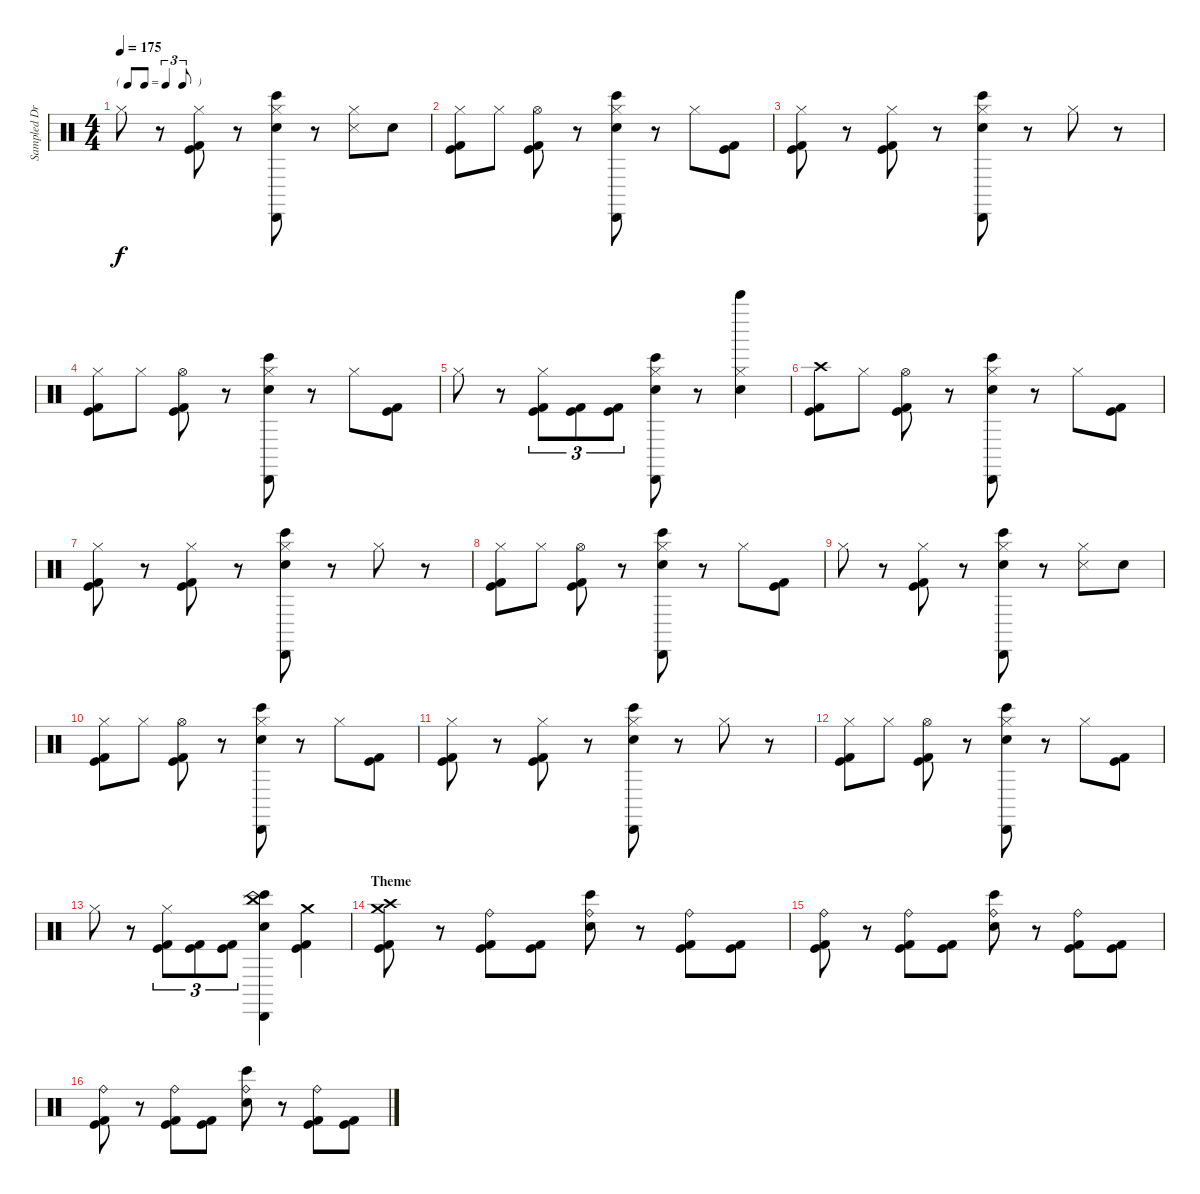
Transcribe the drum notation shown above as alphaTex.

\track ("Sampled Drums" "Sampled Dr") {instrument percussion}
\staff {score}
\articulation defaults
\ts (4 4)
\tf triplet8th
\tempo 175
\clef neutral
\ks c "Hi-Hat (closed)".8{dy f}
r.8 ("Hi-Hat (closed)" "Kick (hit) 2" "Kick (hit)").8 r.8 ("Hi-Hat (closed)" "Bongo High (hit)" "Cabasa (hit)" "Snare (hit) 2").8 r.8 ("Hi-Hat (closed)" "Metronome (hit)").8 "Metronome (bell)".8 |
("Hi-Hat (closed)" "Kick (hit) 2" "Kick (hit)").8 "Hi-Hat (closed)".8 ("Hi-Hat (open)" "Kick (hit) 2" "Kick (hit)").8 r.8 ("Hi-Hat (closed)" "Bongo High (hit)" "Cabasa (hit)" "Snare (hit) 2").8 r.8 "Hi-Hat (closed)".8 ("Kick (hit) 2" "Kick (hit)").8 |
("Hi-Hat (closed)" "Kick (hit) 2" "Kick (hit)").8 r.8 ("Hi-Hat (closed)" "Kick (hit) 2" "Kick (hit)").8 r.8 ("Hi-Hat (closed)" "Bongo High (hit)" "Cabasa (hit)" "Snare (hit) 2").8 r.8 "Hi-Hat (closed)".8 r.8 |
("Hi-Hat (closed)" "Kick (hit) 2" "Kick (hit)").8 "Hi-Hat (closed)".8 ("Hi-Hat (open)" "Kick (hit) 2" "Kick (hit)").8 r.8 ("Hi-Hat (closed)" "Bongo High (hit)" "Cabasa (hit)" "Snare (hit) 2").8 r.8 "Hi-Hat (closed)".8 ("Kick (hit) 2" "Kick (hit)").8 |
"Hi-Hat (closed)".8 r.8 ("Hi-Hat (closed)" "Kick (hit) 2" "Kick (hit)").8{tu (3 2)} ("Kick (hit) 2" "Kick (hit)").8{tu (3 2)} ("Kick (hit) 2" "Kick (hit)").8{tu (3 2)} ("Hi-Hat (closed)" "Bongo High (hit)" "Cabasa (hit)" "Snare (hit) 2").8 r.8 ("Hi-Hat (closed)" "Metronome (bell)" "Bell Tree (hit)").4 |
("Crash high (hit)" "Kick (hit) 2" "Kick (hit)").8 "Hi-Hat (closed)".8 ("Hi-Hat (open)" "Kick (hit) 2" "Kick (hit)").8 r.8 ("Hi-Hat (closed)" "Bongo High (hit)" "Cabasa (hit)" "Snare (hit) 2").8 r.8 "Hi-Hat (closed)".8 ("Kick (hit) 2" "Kick (hit)").8 |
("Hi-Hat (closed)" "Kick (hit) 2" "Kick (hit)").8 r.8 ("Hi-Hat (closed)" "Kick (hit) 2" "Kick (hit)").8 r.8 ("Hi-Hat (closed)" "Bongo High (hit)" "Cabasa (hit)" "Snare (hit) 2").8 r.8 "Hi-Hat (closed)".8 r.8 |
("Hi-Hat (closed)" "Kick (hit) 2" "Kick (hit)").8 "Hi-Hat (closed)".8 ("Hi-Hat (open)" "Kick (hit) 2" "Kick (hit)").8 r.8 ("Hi-Hat (closed)" "Bongo High (hit)" "Cabasa (hit)" "Snare (hit) 2").8 r.8 "Hi-Hat (closed)".8 ("Kick (hit) 2" "Kick (hit)").8 |
"Hi-Hat (closed)".8 r.8 ("Hi-Hat (closed)" "Kick (hit) 2" "Kick (hit)").8 r.8 ("Hi-Hat (closed)" "Bongo High (hit)" "Cabasa (hit)" "Snare (hit) 2").8 r.8 ("Hi-Hat (closed)" "Metronome (hit)").8 "Metronome (bell)".8 |
("Hi-Hat (closed)" "Kick (hit) 2" "Kick (hit)").8 "Hi-Hat (closed)".8 ("Hi-Hat (open)" "Kick (hit) 2" "Kick (hit)").8 r.8 ("Hi-Hat (closed)" "Bongo High (hit)" "Cabasa (hit)" "Snare (hit) 2").8 r.8 "Hi-Hat (closed)".8 ("Kick (hit) 2" "Kick (hit)").8 |
("Hi-Hat (closed)" "Kick (hit) 2" "Kick (hit)").8 r.8 ("Hi-Hat (closed)" "Kick (hit) 2" "Kick (hit)").8 r.8 ("Hi-Hat (closed)" "Bongo High (hit)" "Cabasa (hit)" "Snare (hit) 2").8 r.8 "Hi-Hat (closed)".8 r.8 |
("Hi-Hat (closed)" "Kick (hit) 2" "Kick (hit)").8 "Hi-Hat (closed)".8 ("Hi-Hat (open)" "Kick (hit) 2" "Kick (hit)").8 r.8 ("Hi-Hat (closed)" "Bongo High (hit)" "Cabasa (hit)" "Snare (hit) 2").8 r.8 "Hi-Hat (closed)".8 ("Kick (hit) 2" "Kick (hit)").8 |
"Hi-Hat (closed)".8 r.8 ("Hi-Hat (closed)" "Kick (hit) 2" "Kick (hit)").8{tu (3 2)} ("Kick (hit) 2" "Kick (hit)").8{tu (3 2)} ("Kick (hit) 2" "Kick (hit)").8{tu (3 2)} ("China (hit)" "Bongo High (hit)" "Cabasa (hit)" "Snare (hit) 2").4 ("Crash medium (hit)" "Kick (hit) 2" "Kick (hit)").4 |
\section ("" "Theme")
("Crash medium (hit)" "Crash high (hit)" "Kick (hit)" "Kick (hit) 2").8 r.8 ("Ride (bell)" "Kick (hit)" "Kick (hit) 2").8 ("Kick (hit)" "Kick (hit) 2").8 ("Ride (bell)" "Bongo High (hit)" "Snare (hit) 2").8 r.8 ("Ride (bell)" "Kick (hit)" "Kick (hit) 2").8 ("Kick (hit)" "Kick (hit) 2").8 |
("Ride (bell)" "Kick (hit)" "Kick (hit) 2").8 r.8 ("Ride (bell)" "Kick (hit)" "Kick (hit) 2").8 ("Kick (hit)" "Kick (hit) 2").8 ("Ride (bell)" "Bongo High (hit)" "Snare (hit) 2").8 r.8 ("Ride (bell)" "Kick (hit)" "Kick (hit) 2").8 ("Kick (hit)" "Kick (hit) 2").8 |
("Ride (bell)" "Kick (hit)" "Kick (hit) 2").8 r.8 ("Ride (bell)" "Kick (hit)" "Kick (hit) 2").8 ("Kick (hit)" "Kick (hit) 2").8 ("Ride (bell)" "Bongo High (hit)" "Snare (hit) 2").8 r.8 ("Ride (bell)" "Kick (hit)" "Kick (hit) 2").8 ("Kick (hit)" "Kick (hit) 2").8
